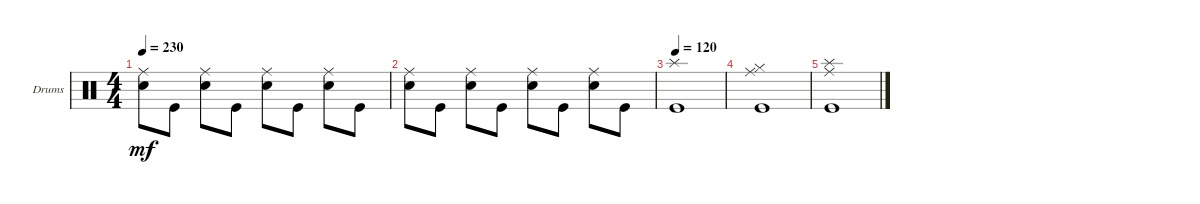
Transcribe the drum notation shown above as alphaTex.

\defaultSystemsLayout 4
\bracketExtendMode groupsimilarinstruments
\firstSystemTrackNameOrientation horizontal
\otherSystemsTrackNameOrientation horizontal
\track ("Drumkit" "Drums") {instrument percussion}
\staff {score}
\articulation defaults
\ts (4 4)
\tempo 230
\clef neutral
\ks c
("Snare (hit) 2" "Ride (middle)").8{dy mf} "Kick (hit)".8 ("Snare (hit) 2" "Ride (middle)").8 "Kick (hit)".8 ("Snare (hit) 2" "Ride (middle)").8 "Kick (hit)".8 ("Snare (hit) 2" "Ride (middle)").8 "Kick (hit)".8 |
("Snare (hit) 2" "Ride (middle)").8 "Kick (hit)".8 ("Snare (hit) 2" "Ride (middle)").8 "Kick (hit)".8 ("Snare (hit) 2" "Ride (middle)").8 "Kick (hit)".8 ("Snare (hit) 2" "Ride (middle)").8 "Kick (hit)".8 |
\tempo 120
("Kick (hit)" "Splash (hit)").1 |
("Kick (hit)" "Hi-Hat (closed)" "Ride (middle)").1 |
("Kick (hit)" "Splash (hit)" "Ride (middle)").1
